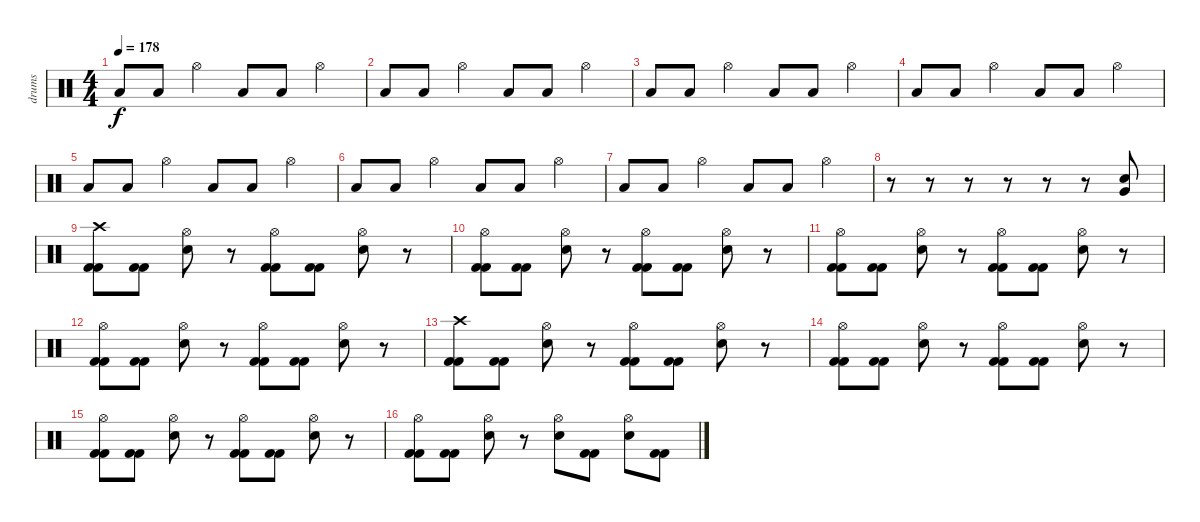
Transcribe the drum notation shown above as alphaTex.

\track ("drums" "drums") {instrument percussion}
\staff {score}
\articulation defaults
\ts (4 4)
\tempo 178
\clef neutral
\ks c "Low Floor Tom (hit)".8{dy f} "Low Floor Tom (hit)".8 "Hi-Hat (open)".4 "Low Floor Tom (hit)".8 "Low Floor Tom (hit)".8 "Hi-Hat (open)".4
|
"Low Floor Tom (hit)".8 "Low Floor Tom (hit)".8 "Hi-Hat (open)".4 "Low Floor Tom (hit)".8 "Low Floor Tom (hit)".8 "Hi-Hat (open)".4 |
"Low Floor Tom (hit)".8 "Low Floor Tom (hit)".8 "Hi-Hat (open)".4 "Low Floor Tom (hit)".8 "Low Floor Tom (hit)".8 "Hi-Hat (open)".4 |
"Low Floor Tom (hit)".8 "Low Floor Tom (hit)".8 "Hi-Hat (open)".4 "Low Floor Tom (hit)".8 "Low Floor Tom (hit)".8 "Hi-Hat (open)".4 |
"Low Floor Tom (hit)".8 "Low Floor Tom (hit)".8 "Hi-Hat (open)".4 "Low Floor Tom (hit)".8 "Low Floor Tom (hit)".8 "Hi-Hat (open)".4 |
"Low Floor Tom (hit)".8 "Low Floor Tom (hit)".8 "Hi-Hat (open)".4 "Low Floor Tom (hit)".8 "Low Floor Tom (hit)".8 "Hi-Hat (open)".4 |
"Low Floor Tom (hit)".8 "Low Floor Tom (hit)".8 "Hi-Hat (open)".4 "Low Floor Tom (hit)".8 "Low Floor Tom (hit)".8 "Hi-Hat (open)".4 |
r.8 r.8 r.8 r.8 r.8 r.8 ("Very Low Tom (hit)" "Electric Snare (hit)").8 |
("Crash high (hit)" "Kick (hit) 2" "Kick (hit) 2").8 ("Kick (hit) 2" "Kick (hit) 2").8 ("Hi-Hat (open)" "Electric Snare (hit)").8 r.8 ("Hi-Hat (open)" "Kick (hit) 2" "Kick (hit) 2").8 ("Kick (hit) 2" "Kick (hit) 2").8 ("Hi-Hat (open)" "Electric Snare (hit)").8 r.8 |
("Hi-Hat (open)" "Kick (hit) 2" "Kick (hit) 2").8 ("Kick (hit) 2" "Kick (hit) 2").8 ("Hi-Hat (open)" "Electric Snare (hit)").8 r.8 ("Hi-Hat (open)" "Kick (hit) 2" "Kick (hit) 2").8 ("Kick (hit) 2" "Kick (hit) 2").8 ("Hi-Hat (open)" "Electric Snare (hit)").8 r.8 |
("Hi-Hat (open)" "Kick (hit) 2" "Kick (hit) 2").8 ("Kick (hit) 2" "Kick (hit) 2").8 ("Hi-Hat (open)" "Electric Snare (hit)").8 r.8 ("Hi-Hat (open)" "Kick (hit) 2" "Kick (hit) 2").8 ("Kick (hit) 2" "Kick (hit) 2").8 ("Hi-Hat (open)" "Electric Snare (hit)").8 r.8 |
("Hi-Hat (open)" "Kick (hit) 2" "Kick (hit) 2").8 ("Kick (hit) 2" "Kick (hit) 2").8 ("Hi-Hat (open)" "Electric Snare (hit)").8 r.8 ("Hi-Hat (open)" "Kick (hit) 2" "Kick (hit) 2").8 ("Kick (hit) 2" "Kick (hit) 2").8 ("Hi-Hat (open)" "Electric Snare (hit)").8 r.8 |
("Crash high (hit)" "Kick (hit) 2" "Kick (hit) 2").8 ("Kick (hit) 2" "Kick (hit) 2").8 ("Hi-Hat (open)" "Electric Snare (hit)").8 r.8 ("Hi-Hat (open)" "Kick (hit) 2" "Kick (hit) 2").8 ("Kick (hit) 2" "Kick (hit) 2").8 ("Hi-Hat (open)" "Electric Snare (hit)").8 r.8 |
("Hi-Hat (open)" "Kick (hit) 2" "Kick (hit) 2").8 ("Kick (hit) 2" "Kick (hit) 2").8 ("Hi-Hat (open)" "Electric Snare (hit)").8 r.8 ("Hi-Hat (open)" "Kick (hit) 2" "Kick (hit) 2").8 ("Kick (hit) 2" "Kick (hit) 2").8 ("Hi-Hat (open)" "Electric Snare (hit)").8 r.8 |
("Hi-Hat (open)" "Kick (hit) 2" "Kick (hit) 2").8 ("Kick (hit) 2" "Kick (hit) 2").8 ("Hi-Hat (open)" "Electric Snare (hit)").8 r.8 ("Hi-Hat (open)" "Kick (hit) 2" "Kick (hit) 2").8 ("Kick (hit) 2" "Kick (hit) 2").8 ("Hi-Hat (open)" "Electric Snare (hit)").8 r.8 |
("Hi-Hat (open)" "Kick (hit) 2" "Kick (hit) 2").8 ("Kick (hit) 2" "Kick (hit) 2").8 ("Hi-Hat (open)" "Electric Snare (hit)").8 r.8 ("Hi-Hat (open)" "Electric Snare (hit)").8 ("Kick (hit) 2" "Kick (hit) 2").8 ("Hi-Hat (open)" "Electric Snare (hit)").8 ("Kick (hit) 2" "Kick (hit) 2").8
